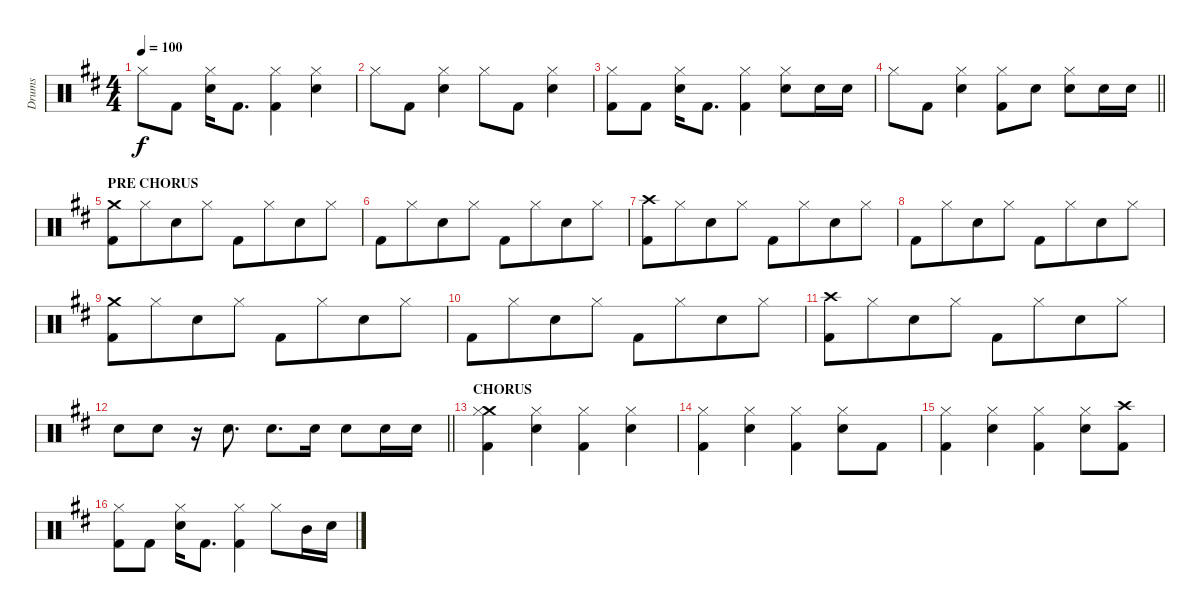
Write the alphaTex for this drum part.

\track ("Drums" "Drums") {instrument percussion}
\staff {score}
\articulation defaults
\ts (4 4)
\tempo 100
\clef neutral
\ks d "Hi-Hat (closed)".8{dy f} "Kick (hit) 2".8
("Hi-Hat (closed)" "Electric Snare (hit)").16 "Kick (hit) 2".8{d} ("Hi-Hat (closed)" "Kick (hit) 2").4 ("Hi-Hat (closed)" "Electric Snare (hit)").4 |
"Hi-Hat (closed)".8 "Kick (hit) 2".8 ("Hi-Hat (closed)" "Electric Snare (hit)").4 "Hi-Hat (closed)".8 "Kick (hit) 2".8 ("Hi-Hat (closed)" "Electric Snare (hit)").4 |
("Hi-Hat (closed)" "Kick (hit) 2").8 "Kick (hit) 2".8 ("Hi-Hat (closed)" "Electric Snare (hit)").16 "Kick (hit) 2".8{d} ("Hi-Hat (closed)" "Kick (hit) 2").4 ("Hi-Hat (closed)" "Electric Snare (hit)").8 "Electric Snare (hit)".16 "Electric Snare (hit)".16 |
\barLineRight lightlight "Hi-Hat (closed)".8 "Kick (hit) 2".8
("Hi-Hat (closed)" "Electric Snare (hit)").4 ("Hi-Hat (closed)" "Kick (hit) 2").8 "Electric Snare (hit)".8 ("Hi-Hat (closed)" "Electric Snare (hit)").8 "Electric Snare (hit)".16 "Electric Snare (hit)".16 |
\section ("" "PRE CHORUS")
("Crash medium (hit)" "Kick (hit) 2").8 "Hi-Hat (closed)".8{beam merge} "Electric Snare (hit)".8 "Hi-Hat (closed)".8 "Kick (hit) 2".8 "Hi-Hat (closed)".8{beam merge} "Electric Snare (hit)".8 "Hi-Hat (closed)".8 |
"Kick (hit) 2".8 "Hi-Hat (closed)".8{beam merge} "Electric Snare (hit)".8 "Hi-Hat (closed)".8 "Kick (hit) 2".8 "Hi-Hat (closed)".8{beam merge} "Electric Snare (hit)".8 "Hi-Hat (closed)".8 |
("Crash high (hit)" "Kick (hit) 2").8 "Hi-Hat (closed)".8{beam merge} "Electric Snare (hit)".8 "Hi-Hat (closed)".8 "Kick (hit) 2".8 "Hi-Hat (closed)".8{beam merge} "Electric Snare (hit)".8 "Hi-Hat (closed)".8 |
"Kick (hit) 2".8 "Hi-Hat (closed)".8{beam merge} "Electric Snare (hit)".8 "Hi-Hat (closed)".8 "Kick (hit) 2".8 "Hi-Hat (closed)".8{beam merge} "Electric Snare (hit)".8 "Hi-Hat (closed)".8 |
("Crash medium (hit)" "Kick (hit) 2").8 "Hi-Hat (closed)".8{beam merge} "Electric Snare (hit)".8 "Hi-Hat (closed)".8 "Kick (hit) 2".8 "Hi-Hat (closed)".8{beam merge} "Electric Snare (hit)".8 "Hi-Hat (closed)".8 |
"Kick (hit) 2".8 "Hi-Hat (closed)".8{beam merge} "Electric Snare (hit)".8 "Hi-Hat (closed)".8 "Kick (hit) 2".8 "Hi-Hat (closed)".8{beam merge} "Electric Snare (hit)".8 "Hi-Hat (closed)".8 |
("Crash high (hit)" "Kick (hit) 2").8 "Hi-Hat (closed)".8{beam merge} "Electric Snare (hit)".8 "Hi-Hat (closed)".8 "Kick (hit) 2".8 "Hi-Hat (closed)".8{beam merge} "Electric Snare (hit)".8 "Hi-Hat (closed)".8 |
\barLineRight lightlight "Electric Snare (hit)".8 "Electric Snare (hit)".8
r.16 "Electric Snare (hit)".8{d} "Electric Snare (hit)".8{d} "Electric Snare (hit)".16 "Electric Snare (hit)".8 "Electric Snare (hit)".16 "Electric Snare (hit)".16 |
\section ("" "CHORUS")
("Crash medium (hit)" "Hi-Hat (closed)" "Kick (hit) 2").4{beam merge} ("Hi-Hat (closed)" "Electric Snare (hit)").4 ("Hi-Hat (closed)" "Kick (hit) 2").4{beam merge} ("Hi-Hat (closed)" "Electric Snare (hit)").4 |
("Hi-Hat (closed)" "Kick (hit) 2").4{beam merge} ("Hi-Hat (closed)" "Electric Snare (hit)").4 ("Hi-Hat (closed)" "Kick (hit) 2").4{beam merge} ("Hi-Hat (closed)" "Electric Snare (hit)").8 "Kick (hit) 2".8 |
("Hi-Hat (closed)" "Kick (hit) 2").4{beam merge} ("Hi-Hat (closed)" "Electric Snare (hit)").4 ("Hi-Hat (closed)" "Kick (hit) 2").4{beam merge} ("Hi-Hat (closed)" "Electric Snare (hit)").8 ("Crash high (hit)" "Kick (hit) 2").8 |
("Hi-Hat (closed)" "Kick (hit) 2").8 "Kick (hit) 2".8 ("Hi-Hat (closed)" "Electric Snare (hit)").16 "Kick (hit) 2".8{d} ("Hi-Hat (closed)" "Kick (hit) 2").4 "Hi-Hat (closed)".8 "Mid Tom (hit)".16 "Electric Snare (hit)".16
